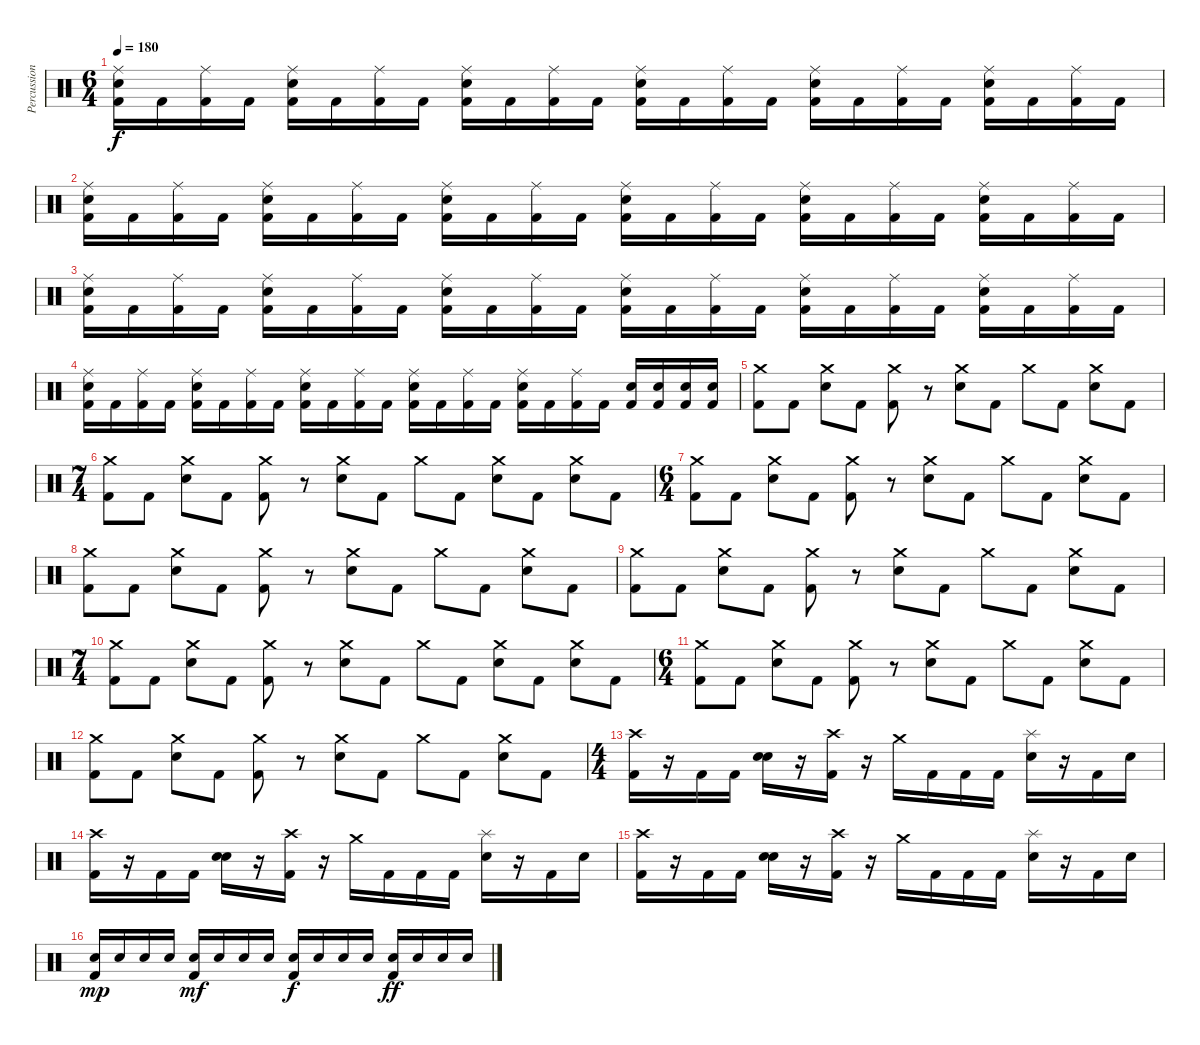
\track ("Percussion" "Percussion") {instrument percussion}
\staff {score}
\articulation defaults
\ts (6 4)
\tempo 180
\clef neutral
\ks c
("Ride (middle)" "Electric Snare (hit)" "Kick (hit) 2").16{dy f} "Kick (hit) 2".16 ("Ride (middle)" "Kick (hit) 2").16 "Kick (hit) 2".16 ("Ride (middle)" "Electric Snare (hit)" "Kick (hit) 2").16 "Kick (hit) 2".16 ("Ride (middle)" "Kick (hit) 2").16 "Kick (hit) 2".16 ("Ride (middle)" "Electric Snare (hit)" "Kick (hit) 2").16 "Kick (hit) 2".16 ("Ride (middle)" "Kick (hit) 2").16 "Kick (hit) 2".16 ("Ride (middle)" "Electric Snare (hit)" "Kick (hit) 2").16 "Kick (hit) 2".16 ("Ride (middle)" "Kick (hit) 2").16 "Kick (hit) 2".16 ("Ride (middle)" "Electric Snare (hit)" "Kick (hit) 2").16 "Kick (hit) 2".16 ("Ride (middle)" "Kick (hit) 2").16 "Kick (hit) 2".16 ("Ride (middle)" "Electric Snare (hit)" "Kick (hit) 2").16 "Kick (hit) 2".16 ("Ride (middle)" "Kick (hit) 2").16 "Kick (hit) 2".16 |
("Ride (middle)" "Electric Snare (hit)" "Kick (hit) 2").16 "Kick (hit) 2".16 ("Ride (middle)" "Kick (hit) 2").16 "Kick (hit) 2".16 ("Ride (middle)" "Electric Snare (hit)" "Kick (hit) 2").16 "Kick (hit) 2".16 ("Ride (middle)" "Kick (hit) 2").16 "Kick (hit) 2".16 ("Ride (middle)" "Electric Snare (hit)" "Kick (hit) 2").16 "Kick (hit) 2".16 ("Ride (middle)" "Kick (hit) 2").16 "Kick (hit) 2".16 ("Ride (middle)" "Electric Snare (hit)" "Kick (hit) 2").16 "Kick (hit) 2".16 ("Ride (middle)" "Kick (hit) 2").16 "Kick (hit) 2".16 ("Ride (middle)" "Electric Snare (hit)" "Kick (hit) 2").16 "Kick (hit) 2".16 ("Ride (middle)" "Kick (hit) 2").16 "Kick (hit) 2".16 ("Ride (middle)" "Electric Snare (hit)" "Kick (hit) 2").16 "Kick (hit) 2".16 ("Ride (middle)" "Kick (hit) 2").16 "Kick (hit) 2".16 |
("Ride (middle)" "Electric Snare (hit)" "Kick (hit) 2").16 "Kick (hit) 2".16 ("Ride (middle)" "Kick (hit) 2").16 "Kick (hit) 2".16 ("Ride (middle)" "Electric Snare (hit)" "Kick (hit) 2").16 "Kick (hit) 2".16 ("Ride (middle)" "Kick (hit) 2").16 "Kick (hit) 2".16 ("Ride (middle)" "Electric Snare (hit)" "Kick (hit) 2").16 "Kick (hit) 2".16 ("Ride (middle)" "Kick (hit) 2").16 "Kick (hit) 2".16 ("Ride (middle)" "Electric Snare (hit)" "Kick (hit) 2").16 "Kick (hit) 2".16 ("Ride (middle)" "Kick (hit) 2").16 "Kick (hit) 2".16 ("Ride (middle)" "Electric Snare (hit)" "Kick (hit) 2").16 "Kick (hit) 2".16 ("Ride (middle)" "Kick (hit) 2").16 "Kick (hit) 2".16 ("Ride (middle)" "Electric Snare (hit)" "Kick (hit) 2").16 "Kick (hit) 2".16 ("Ride (middle)" "Kick (hit) 2").16 "Kick (hit) 2".16 |
("Ride (middle)" "Electric Snare (hit)" "Kick (hit) 2").16 "Kick (hit) 2".16 ("Ride (middle)" "Kick (hit) 2").16 "Kick (hit) 2".16 ("Ride (middle)" "Electric Snare (hit)" "Kick (hit) 2").16 "Kick (hit) 2".16 ("Ride (middle)" "Kick (hit) 2").16 "Kick (hit) 2".16 ("Ride (middle)" "Electric Snare (hit)" "Kick (hit) 2").16 "Kick (hit) 2".16 ("Ride (middle)" "Kick (hit) 2").16 "Kick (hit) 2".16 ("Ride (middle)" "Electric Snare (hit)" "Kick (hit) 2").16 "Kick (hit) 2".16 ("Ride (middle)" "Kick (hit) 2").16 "Kick (hit) 2".16 ("Ride (middle)" "Electric Snare (hit)" "Kick (hit) 2").16 "Kick (hit) 2".16 ("Ride (middle)" "Kick (hit) 2").16 "Kick (hit) 2".16 ("Electric Snare (hit)" "Kick (hit) 2").16 ("Electric Snare (hit)" "Kick (hit) 2").16 ("Electric Snare (hit)" "Kick (hit) 2").16 ("Electric Snare (hit)" "Kick (hit) 2").16 |
("Crash medium (hit)" "Kick (hit) 2").8 "Kick (hit) 2".8 ("Crash medium (hit)" "Electric Snare (hit)").8 "Kick (hit) 2".8 ("Crash medium (hit)" "Kick (hit) 2").8 r.8 ("Crash medium (hit)" "Electric Snare (hit)").8 "Kick (hit) 2".8 "Crash medium (hit)".8 "Kick (hit) 2".8 ("Crash medium (hit)" "Electric Snare (hit)").8 "Kick (hit) 2".8 |
\ts (7 4)
("Crash medium (hit)" "Kick (hit) 2").8 "Kick (hit) 2".8 ("Crash medium (hit)" "Electric Snare (hit)").8 "Kick (hit) 2".8 ("Crash medium (hit)" "Kick (hit) 2").8 r.8 ("Crash medium (hit)" "Electric Snare (hit)").8 "Kick (hit) 2".8 "Crash medium (hit)".8 "Kick (hit) 2".8 ("Crash medium (hit)" "Electric Snare (hit)").8 "Kick (hit) 2".8 ("Crash medium (hit)" "Electric Snare (hit)").8 "Kick (hit) 2".8 |
\ts (6 4)
("Crash medium (hit)" "Kick (hit) 2").8 "Kick (hit) 2".8 ("Crash medium (hit)" "Electric Snare (hit)").8 "Kick (hit) 2".8 ("Crash medium (hit)" "Kick (hit) 2").8 r.8 ("Crash medium (hit)" "Electric Snare (hit)").8 "Kick (hit) 2".8 "Crash medium (hit)".8 "Kick (hit) 2".8 ("Crash medium (hit)" "Electric Snare (hit)").8 "Kick (hit) 2".8 |
("Crash medium (hit)" "Kick (hit) 2").8 "Kick (hit) 2".8 ("Crash medium (hit)" "Electric Snare (hit)").8 "Kick (hit) 2".8 ("Crash medium (hit)" "Kick (hit) 2").8 r.8 ("Crash medium (hit)" "Electric Snare (hit)").8 "Kick (hit) 2".8 "Crash medium (hit)".8 "Kick (hit) 2".8 ("Crash medium (hit)" "Electric Snare (hit)").8 "Kick (hit) 2".8 |
("Crash medium (hit)" "Kick (hit) 2").8 "Kick (hit) 2".8 ("Crash medium (hit)" "Electric Snare (hit)").8 "Kick (hit) 2".8 ("Crash medium (hit)" "Kick (hit) 2").8 r.8 ("Crash medium (hit)" "Electric Snare (hit)").8 "Kick (hit) 2".8 "Crash medium (hit)".8 "Kick (hit) 2".8 ("Crash medium (hit)" "Electric Snare (hit)").8 "Kick (hit) 2".8 |
\ts (7 4)
("Crash medium (hit)" "Kick (hit) 2").8 "Kick (hit) 2".8 ("Crash medium (hit)" "Electric Snare (hit)").8 "Kick (hit) 2".8 ("Crash medium (hit)" "Kick (hit) 2").8 r.8 ("Crash medium (hit)" "Electric Snare (hit)").8 "Kick (hit) 2".8 "Crash medium (hit)".8 "Kick (hit) 2".8 ("Crash medium (hit)" "Electric Snare (hit)").8 "Kick (hit) 2".8 ("Crash medium (hit)" "Electric Snare (hit)").8 "Kick (hit) 2".8 |
\ts (6 4)
("Crash medium (hit)" "Kick (hit) 2").8 "Kick (hit) 2".8 ("Crash medium (hit)" "Electric Snare (hit)").8 "Kick (hit) 2".8 ("Crash medium (hit)" "Kick (hit) 2").8 r.8 ("Crash medium (hit)" "Electric Snare (hit)").8 "Kick (hit) 2".8 "Crash medium (hit)".8 "Kick (hit) 2".8 ("Crash medium (hit)" "Electric Snare (hit)").8 "Kick (hit) 2".8 |
("Crash medium (hit)" "Kick (hit) 2").8 "Kick (hit) 2".8 ("Crash medium (hit)" "Electric Snare (hit)").8 "Kick (hit) 2".8 ("Crash medium (hit)" "Kick (hit) 2").8 r.8 ("Crash medium (hit)" "Electric Snare (hit)").8 "Kick (hit) 2".8 "Crash medium (hit)".8 "Kick (hit) 2".8 ("Crash medium (hit)" "Electric Snare (hit)").8 "Kick (hit) 2".8 |
\ts (4 4)
("Crash high (hit)" "Kick (hit) 2").16 r.16 "Kick (hit) 2".16 "Kick (hit) 2".16 ("Electric Snare (hit)" "Electric Snare (hit)").16 r.16 ("Crash high (hit)" "Kick (hit) 2").16 r.16 "Crash medium (hit)".16 "Kick (hit) 2".16 "Kick (hit) 2".16 "Kick (hit) 2".16 ("Splash (hit)" "Electric Snare (hit)").16 r.16 "Kick (hit) 2".16 "Electric Snare (hit)".16 |
("Crash high (hit)" "Kick (hit) 2").16 r.16 "Kick (hit) 2".16 "Kick (hit) 2".16 ("Electric Snare (hit)" "Electric Snare (hit)").16 r.16 ("Crash high (hit)" "Kick (hit) 2").16 r.16 "Crash medium (hit)".16 "Kick (hit) 2".16 "Kick (hit) 2".16 "Kick (hit) 2".16 ("Splash (hit)" "Electric Snare (hit)").16 r.16 "Kick (hit) 2".16 "Electric Snare (hit)".16 |
("Crash high (hit)" "Kick (hit) 2").16 r.16 "Kick (hit) 2".16 "Kick (hit) 2".16 ("Electric Snare (hit)" "Electric Snare (hit)").16 r.16 ("Crash high (hit)" "Kick (hit) 2").16 r.16 "Crash medium (hit)".16 "Kick (hit) 2".16 "Kick (hit) 2".16 "Kick (hit) 2".16 ("Splash (hit)" "Electric Snare (hit)").16 r.16 "Kick (hit) 2".16 "Electric Snare (hit)".16 |
("Electric Snare (hit)" "Kick (hit) 2").16{dy mp} "Electric Snare (hit)".16 "Electric Snare (hit)".16 "Electric Snare (hit)".16 ("Electric Snare (hit)" "Kick (hit) 2").16{dy mf} "Electric Snare (hit)".16 "Electric Snare (hit)".16 "Electric Snare (hit)".16 ("Electric Snare (hit)" "Kick (hit) 2").16{dy f} "Electric Snare (hit)".16 "Electric Snare (hit)".16 "Electric Snare (hit)".16 ("Electric Snare (hit)" "Kick (hit) 2").16{dy ff} "Electric Snare (hit)".16 "Electric Snare (hit)".16 "Electric Snare (hit)".16
